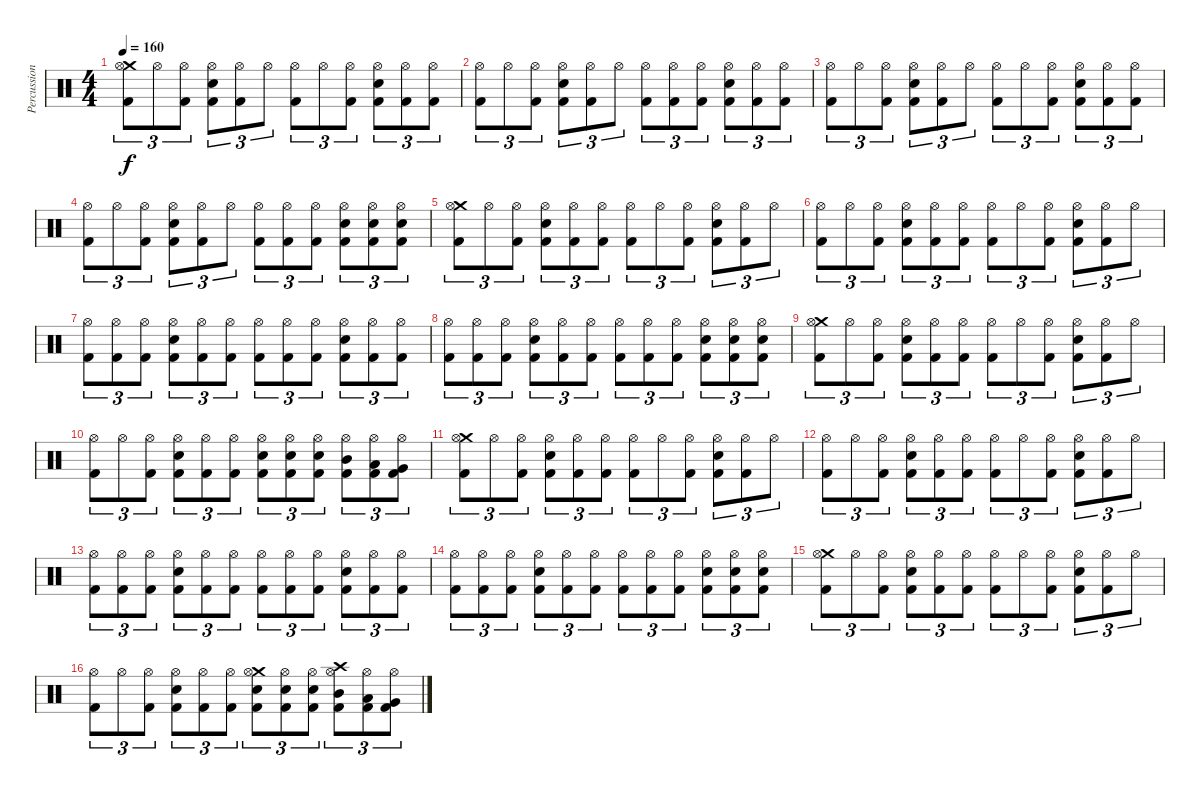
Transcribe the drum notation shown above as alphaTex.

\track ("Percussion" "Percussion") {instrument percussion}
\staff {score}
\articulation defaults
\ts (4 4)
\tempo 160
\clef neutral
\ks c
("Crash medium (hit)" "Hi-Hat (open)" "Kick (hit) 2").8{tu (3 2) dy f} "Hi-Hat (open)".8{tu (3 2)} ("Hi-Hat (open)" "Kick (hit) 2").8{tu (3 2)} ("Hi-Hat (open)" "Electric Snare (hit)" "Kick (hit) 2").8{tu (3 2)} ("Hi-Hat (open)" "Kick (hit) 2").8{tu (3 2)} "Hi-Hat (open)".8{tu (3 2)} ("Hi-Hat (open)" "Kick (hit) 2").8{tu (3 2)} "Hi-Hat (open)".8{tu (3 2)} ("Hi-Hat (open)" "Kick (hit) 2").8{tu (3 2)} ("Hi-Hat (open)" "Electric Snare (hit)" "Kick (hit) 2").8{tu (3 2)} ("Hi-Hat (open)" "Kick (hit) 2").8{tu (3 2)} ("Hi-Hat (open)" "Kick (hit) 2").8{tu (3 2)} |
("Hi-Hat (open)" "Kick (hit) 2").8{tu (3 2)} "Hi-Hat (open)".8{tu (3 2)} ("Hi-Hat (open)" "Kick (hit) 2").8{tu (3 2)} ("Hi-Hat (open)" "Electric Snare (hit)" "Kick (hit) 2").8{tu (3 2)} ("Hi-Hat (open)" "Kick (hit) 2").8{tu (3 2)} "Hi-Hat (open)".8{tu (3 2)} ("Hi-Hat (open)" "Kick (hit) 2").8{tu (3 2)} ("Hi-Hat (open)" "Kick (hit) 2").8{tu (3 2)} ("Hi-Hat (open)" "Kick (hit) 2").8{tu (3 2)} ("Hi-Hat (open)" "Electric Snare (hit)" "Kick (hit) 2").8{tu (3 2)} ("Hi-Hat (open)" "Kick (hit) 2").8{tu (3 2)} ("Hi-Hat (open)" "Kick (hit) 2").8{tu (3 2)} |
("Hi-Hat (open)" "Kick (hit) 2").8{tu (3 2)} "Hi-Hat (open)".8{tu (3 2)} ("Hi-Hat (open)" "Kick (hit) 2").8{tu (3 2)} ("Hi-Hat (open)" "Electric Snare (hit)" "Kick (hit) 2").8{tu (3 2)} ("Hi-Hat (open)" "Kick (hit) 2").8{tu (3 2)} "Hi-Hat (open)".8{tu (3 2)} ("Hi-Hat (open)" "Kick (hit) 2").8{tu (3 2)} "Hi-Hat (open)".8{tu (3 2)} ("Hi-Hat (open)" "Kick (hit) 2").8{tu (3 2)} ("Hi-Hat (open)" "Electric Snare (hit)" "Kick (hit) 2").8{tu (3 2)} ("Hi-Hat (open)" "Kick (hit) 2").8{tu (3 2)} ("Hi-Hat (open)" "Kick (hit) 2").8{tu (3 2)} |
("Hi-Hat (open)" "Kick (hit) 2").8{tu (3 2)} "Hi-Hat (open)".8{tu (3 2)} ("Hi-Hat (open)" "Kick (hit) 2").8{tu (3 2)} ("Hi-Hat (open)" "Electric Snare (hit)" "Kick (hit) 2").8{tu (3 2)} ("Hi-Hat (open)" "Kick (hit) 2").8{tu (3 2)} "Hi-Hat (open)".8{tu (3 2)} ("Hi-Hat (open)" "Kick (hit) 2").8{tu (3 2)} ("Hi-Hat (open)" "Kick (hit) 2").8{tu (3 2)} ("Hi-Hat (open)" "Kick (hit) 2").8{tu (3 2)} ("Hi-Hat (open)" "Electric Snare (hit)" "Kick (hit) 2").8{tu (3 2)} ("Hi-Hat (open)" "Electric Snare (hit)" "Kick (hit) 2").8{tu (3 2)} ("Hi-Hat (open)" "Electric Snare (hit)" "Kick (hit) 2").8{tu (3 2)} |
("Crash medium (hit)" "Hi-Hat (open)" "Kick (hit) 2").8{tu (3 2)} "Hi-Hat (open)".8{tu (3 2)} ("Hi-Hat (open)" "Kick (hit) 2").8{tu (3 2)} ("Hi-Hat (open)" "Electric Snare (hit)" "Kick (hit) 2").8{tu (3 2)} ("Hi-Hat (open)" "Kick (hit) 2").8{tu (3 2)} ("Hi-Hat (open)" "Kick (hit) 2").8{tu (3 2)} ("Hi-Hat (open)" "Kick (hit) 2").8{tu (3 2)} "Hi-Hat (open)".8{tu (3 2)} ("Hi-Hat (open)" "Kick (hit) 2").8{tu (3 2)} ("Hi-Hat (open)" "Electric Snare (hit)" "Kick (hit) 2").8{tu (3 2)} ("Hi-Hat (open)" "Kick (hit) 2").8{tu (3 2)} "Hi-Hat (open)".8{tu (3 2)} |
("Hi-Hat (open)" "Kick (hit) 2").8{tu (3 2)} "Hi-Hat (open)".8{tu (3 2)} ("Hi-Hat (open)" "Kick (hit) 2").8{tu (3 2)} ("Hi-Hat (open)" "Electric Snare (hit)" "Kick (hit) 2").8{tu (3 2)} ("Hi-Hat (open)" "Kick (hit) 2").8{tu (3 2)} ("Hi-Hat (open)" "Kick (hit) 2").8{tu (3 2)} ("Hi-Hat (open)" "Kick (hit) 2").8{tu (3 2)} "Hi-Hat (open)".8{tu (3 2)} ("Hi-Hat (open)" "Kick (hit) 2").8{tu (3 2)} ("Hi-Hat (open)" "Electric Snare (hit)" "Kick (hit) 2").8{tu (3 2)} ("Hi-Hat (open)" "Kick (hit) 2").8{tu (3 2)} "Hi-Hat (open)".8{tu (3 2)} |
("Hi-Hat (open)" "Kick (hit) 2").8{tu (3 2)} ("Hi-Hat (open)" "Kick (hit) 2").8{tu (3 2)} ("Hi-Hat (open)" "Kick (hit) 2").8{tu (3 2)} ("Hi-Hat (open)" "Electric Snare (hit)" "Kick (hit) 2").8{tu (3 2)} ("Hi-Hat (open)" "Kick (hit) 2").8{tu (3 2)} ("Hi-Hat (open)" "Kick (hit) 2").8{tu (3 2)} ("Hi-Hat (open)" "Kick (hit) 2").8{tu (3 2)} ("Hi-Hat (open)" "Kick (hit) 2").8{tu (3 2)} ("Hi-Hat (open)" "Kick (hit) 2").8{tu (3 2)} ("Hi-Hat (open)" "Electric Snare (hit)" "Kick (hit) 2").8{tu (3 2)} ("Hi-Hat (open)" "Kick (hit) 2").8{tu (3 2)} ("Hi-Hat (open)" "Kick (hit) 2").8{tu (3 2)} |
("Hi-Hat (open)" "Kick (hit) 2").8{tu (3 2)} ("Hi-Hat (open)" "Kick (hit) 2").8{tu (3 2)} ("Hi-Hat (open)" "Kick (hit) 2").8{tu (3 2)} ("Hi-Hat (open)" "Electric Snare (hit)" "Kick (hit) 2").8{tu (3 2)} ("Hi-Hat (open)" "Kick (hit) 2").8{tu (3 2)} ("Hi-Hat (open)" "Kick (hit) 2").8{tu (3 2)} ("Hi-Hat (open)" "Kick (hit) 2").8{tu (3 2)} ("Hi-Hat (open)" "Kick (hit) 2").8{tu (3 2)} ("Hi-Hat (open)" "Kick (hit) 2").8{tu (3 2)} ("Hi-Hat (open)" "Electric Snare (hit)" "Kick (hit) 2").8{tu (3 2)} ("Hi-Hat (open)" "Electric Snare (hit)" "Kick (hit) 2").8{tu (3 2)} ("Hi-Hat (open)" "Electric Snare (hit)" "Kick (hit) 2").8{tu (3 2)} |
("Crash medium (hit)" "Hi-Hat (open)" "Kick (hit) 2").8{tu (3 2)} "Hi-Hat (open)".8{tu (3 2)} ("Hi-Hat (open)" "Kick (hit) 2").8{tu (3 2)} ("Hi-Hat (open)" "Electric Snare (hit)" "Kick (hit) 2").8{tu (3 2)} ("Hi-Hat (open)" "Kick (hit) 2").8{tu (3 2)} ("Hi-Hat (open)" "Kick (hit) 2").8{tu (3 2)} ("Hi-Hat (open)" "Kick (hit) 2").8{tu (3 2)} "Hi-Hat (open)".8{tu (3 2)} ("Hi-Hat (open)" "Kick (hit) 2").8{tu (3 2)} ("Hi-Hat (open)" "Electric Snare (hit)" "Kick (hit) 2").8{tu (3 2)} ("Hi-Hat (open)" "Kick (hit) 2").8{tu (3 2)} "Hi-Hat (open)".8{tu (3 2)} |
("Hi-Hat (open)" "Kick (hit) 2").8{tu (3 2)} "Hi-Hat (open)".8{tu (3 2)} ("Hi-Hat (open)" "Kick (hit) 2").8{tu (3 2)} ("Hi-Hat (open)" "Electric Snare (hit)" "Kick (hit) 2").8{tu (3 2)} ("Hi-Hat (open)" "Kick (hit) 2").8{tu (3 2)} ("Hi-Hat (open)" "Kick (hit) 2").8{tu (3 2)} ("Hi-Hat (open)" "Electric Snare (hit)" "Kick (hit) 2").8{tu (3 2)} ("Hi-Hat (open)" "Electric Snare (hit)" "Kick (hit) 2").8{tu (3 2)} ("Hi-Hat (open)" "Electric Snare (hit)" "Kick (hit) 2").8{tu (3 2)} ("Hi-Hat (open)" "Mid Tom (hit)" "Kick (hit) 2").8{tu (3 2)} ("Hi-Hat (open)" "Low Tom (hit)" "Kick (hit) 2").8{tu (3 2)} ("Hi-Hat (open)" "Very Low Tom (hit)" "Kick (hit) 2").8{tu (3 2)} |
("Crash medium (hit)" "Hi-Hat (open)" "Kick (hit) 2").8{tu (3 2)} "Hi-Hat (open)".8{tu (3 2)} ("Hi-Hat (open)" "Kick (hit) 2").8{tu (3 2)} ("Hi-Hat (open)" "Electric Snare (hit)" "Kick (hit) 2").8{tu (3 2)} ("Hi-Hat (open)" "Kick (hit) 2").8{tu (3 2)} ("Hi-Hat (open)" "Kick (hit) 2").8{tu (3 2)} ("Hi-Hat (open)" "Kick (hit) 2").8{tu (3 2)} "Hi-Hat (open)".8{tu (3 2)} ("Hi-Hat (open)" "Kick (hit) 2").8{tu (3 2)} ("Hi-Hat (open)" "Electric Snare (hit)" "Kick (hit) 2").8{tu (3 2)} ("Hi-Hat (open)" "Kick (hit) 2").8{tu (3 2)} "Hi-Hat (open)".8{tu (3 2)} |
("Hi-Hat (open)" "Kick (hit) 2").8{tu (3 2)} "Hi-Hat (open)".8{tu (3 2)} ("Hi-Hat (open)" "Kick (hit) 2").8{tu (3 2)} ("Hi-Hat (open)" "Electric Snare (hit)" "Kick (hit) 2").8{tu (3 2)} ("Hi-Hat (open)" "Kick (hit) 2").8{tu (3 2)} ("Hi-Hat (open)" "Kick (hit) 2").8{tu (3 2)} ("Hi-Hat (open)" "Kick (hit) 2").8{tu (3 2)} "Hi-Hat (open)".8{tu (3 2)} ("Hi-Hat (open)" "Kick (hit) 2").8{tu (3 2)} ("Hi-Hat (open)" "Electric Snare (hit)" "Kick (hit) 2").8{tu (3 2)} ("Hi-Hat (open)" "Kick (hit) 2").8{tu (3 2)} "Hi-Hat (open)".8{tu (3 2)} |
("Hi-Hat (open)" "Kick (hit) 2").8{tu (3 2)} ("Hi-Hat (open)" "Kick (hit) 2").8{tu (3 2)} ("Hi-Hat (open)" "Kick (hit) 2").8{tu (3 2)} ("Hi-Hat (open)" "Electric Snare (hit)" "Kick (hit) 2").8{tu (3 2)} ("Hi-Hat (open)" "Kick (hit) 2").8{tu (3 2)} ("Hi-Hat (open)" "Kick (hit) 2").8{tu (3 2)} ("Hi-Hat (open)" "Kick (hit) 2").8{tu (3 2)} ("Hi-Hat (open)" "Kick (hit) 2").8{tu (3 2)} ("Hi-Hat (open)" "Kick (hit) 2").8{tu (3 2)} ("Hi-Hat (open)" "Electric Snare (hit)" "Kick (hit) 2").8{tu (3 2)} ("Hi-Hat (open)" "Kick (hit) 2").8{tu (3 2)} ("Hi-Hat (open)" "Kick (hit) 2").8{tu (3 2)} |
("Hi-Hat (open)" "Kick (hit) 2").8{tu (3 2)} ("Hi-Hat (open)" "Kick (hit) 2").8{tu (3 2)} ("Hi-Hat (open)" "Kick (hit) 2").8{tu (3 2)} ("Hi-Hat (open)" "Electric Snare (hit)" "Kick (hit) 2").8{tu (3 2)} ("Hi-Hat (open)" "Kick (hit) 2").8{tu (3 2)} ("Hi-Hat (open)" "Kick (hit) 2").8{tu (3 2)} ("Hi-Hat (open)" "Kick (hit) 2").8{tu (3 2)} ("Hi-Hat (open)" "Kick (hit) 2").8{tu (3 2)} ("Hi-Hat (open)" "Kick (hit) 2").8{tu (3 2)} ("Hi-Hat (open)" "Electric Snare (hit)" "Kick (hit) 2").8{tu (3 2)} ("Hi-Hat (open)" "Electric Snare (hit)" "Kick (hit) 2").8{tu (3 2)} ("Hi-Hat (open)" "Electric Snare (hit)" "Kick (hit) 2").8{tu (3 2)} |
("Crash medium (hit)" "Hi-Hat (open)" "Kick (hit) 2").8{tu (3 2)} "Hi-Hat (open)".8{tu (3 2)} ("Hi-Hat (open)" "Kick (hit) 2").8{tu (3 2)} ("Hi-Hat (open)" "Electric Snare (hit)" "Kick (hit) 2").8{tu (3 2)} ("Hi-Hat (open)" "Kick (hit) 2").8{tu (3 2)} ("Hi-Hat (open)" "Kick (hit) 2").8{tu (3 2)} ("Hi-Hat (open)" "Kick (hit) 2").8{tu (3 2)} "Hi-Hat (open)".8{tu (3 2)} ("Hi-Hat (open)" "Kick (hit) 2").8{tu (3 2)} ("Hi-Hat (open)" "Electric Snare (hit)" "Kick (hit) 2").8{tu (3 2)} ("Hi-Hat (open)" "Kick (hit) 2").8{tu (3 2)} "Hi-Hat (open)".8{tu (3 2)} |
("Hi-Hat (open)" "Kick (hit) 2").8{tu (3 2)} "Hi-Hat (open)".8{tu (3 2)} ("Hi-Hat (open)" "Kick (hit) 2").8{tu (3 2)} ("Hi-Hat (open)" "Electric Snare (hit)" "Kick (hit) 2").8{tu (3 2)} ("Hi-Hat (open)" "Kick (hit) 2").8{tu (3 2)} ("Hi-Hat (open)" "Kick (hit) 2").8{tu (3 2)} ("Crash medium (hit)" "Hi-Hat (open)" "Electric Snare (hit)" "Kick (hit) 2").8{tu (3 2)} ("Hi-Hat (open)" "Electric Snare (hit)" "Kick (hit) 2").8{tu (3 2)} ("Hi-Hat (open)" "Electric Snare (hit)" "Kick (hit) 2").8{tu (3 2)} ("Crash high (hit)" "Hi-Hat (open)" "Mid Tom (hit)" "Kick (hit) 2").8{tu (3 2)} ("Hi-Hat (open)" "Low Tom (hit)" "Kick (hit) 2").8{tu (3 2)} ("Hi-Hat (open)" "Very Low Tom (hit)" "Kick (hit) 2").8{tu (3 2)}
